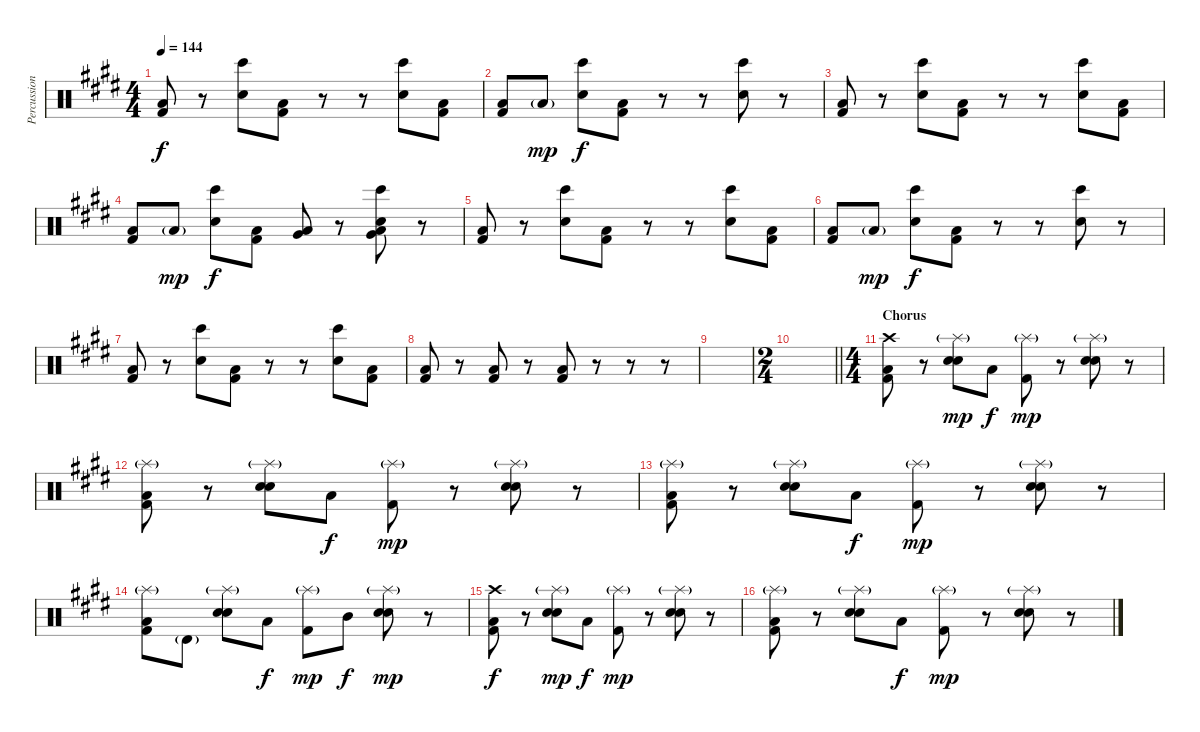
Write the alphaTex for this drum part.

\track ("Percussion" "Percussion") {instrument percussion}
\staff {score}
\articulation defaults
\ts (4 4)
\tempo 144
\clef neutral
\ks e
("Low Floor Tom (hit)" "Kick (hit) 2").8{dy f} r.8 ("Bongo High (hit)" "Hand Clap (hit)").8 ("Low Floor Tom (hit)" "Kick (hit) 2").8 r.8 r.8 ("Bongo High (hit)" "Hand Clap (hit)").8 ("Low Floor Tom (hit)" "Kick (hit) 2").8 |
("Low Floor Tom (hit)" "Kick (hit) 2").8 "Low Tom (hit)"{g}.8{dy mp} ("Bongo High (hit)" "Hand Clap (hit)").8{dy f} ("Low Floor Tom (hit)" "Kick (hit) 2").8 r.8 r.8 ("Bongo High (hit)" "Hand Clap (hit)").8 r.8 |
("Low Floor Tom (hit)" "Kick (hit) 2").8 r.8 ("Bongo High (hit)" "Hand Clap (hit)").8 ("Low Floor Tom (hit)" "Kick (hit) 2").8 r.8 r.8 ("Bongo High (hit)" "Hand Clap (hit)").8 ("Low Floor Tom (hit)" "Kick (hit) 2").8 |
("Low Floor Tom (hit)" "Kick (hit) 2").8 "Low Tom (hit)"{g}.8{dy mp} ("Bongo High (hit)" "Hand Clap (hit)").8{dy f} ("Low Floor Tom (hit)" "Kick (hit) 2").8 ("Low Tom (hit)" "Very Low Tom (hit)").8 r.8 ("Bongo High (hit)" "Hand Clap (hit)" "Low Tom (hit)" "Very Low Tom (hit)").8 r.8 |
("Low Floor Tom (hit)" "Kick (hit) 2").8 r.8 ("Bongo High (hit)" "Hand Clap (hit)").8 ("Low Floor Tom (hit)" "Kick (hit) 2").8 r.8 r.8 ("Bongo High (hit)" "Hand Clap (hit)").8 ("Low Floor Tom (hit)" "Kick (hit) 2").8 |
("Low Floor Tom (hit)" "Kick (hit) 2").8 "Low Tom (hit)"{g}.8{dy mp} ("Bongo High (hit)" "Hand Clap (hit)").8{dy f} ("Low Floor Tom (hit)" "Kick (hit) 2").8 r.8 r.8 ("Bongo High (hit)" "Hand Clap (hit)").8 r.8 |
("Low Floor Tom (hit)" "Kick (hit) 2").8 r.8 ("Bongo High (hit)" "Hand Clap (hit)").8 ("Low Floor Tom (hit)" "Kick (hit) 2").8 r.8 r.8 ("Bongo High (hit)" "Hand Clap (hit)").8 ("Low Floor Tom (hit)" "Kick (hit) 2").8 |
("Low Floor Tom (hit)" "Kick (hit) 2").8 r.8 ("Low Floor Tom (hit)" "Kick (hit) 2").8 r.8 ("Low Floor Tom (hit)" "Kick (hit) 2").8 r.8 r.8 r.8 |
|
\ts (2 4)
\barLineRight lightlight
|
\ts (4 4)
\section ("" "Chorus")
("Crash high (hit)" "Low Floor Tom (hit)" "Kick (hit) 2").8 r.8 ("Splash (hit)"{g} "Hand Clap (hit)" "Electric Snare (hit)").8{dy mp} "Low Floor Tom (hit)".8{dy f} ("Splash (hit)"{g} "Kick (hit) 2").8{dy mp} r.8 ("Splash (hit)"{g} "Hand Clap (hit)" "Electric Snare (hit)").8 r.8 |
("Splash (hit)"{g} "Low Floor Tom (hit)" "Kick (hit) 2").8 r.8 ("Splash (hit)"{g} "Hand Clap (hit)" "Electric Snare (hit)").8 "Low Floor Tom (hit)".8{dy f} ("Splash (hit)"{g} "Kick (hit) 2").8{dy mp} r.8 ("Splash (hit)"{g} "Hand Clap (hit)" "Electric Snare (hit)").8 r.8 |
("Splash (hit)"{g} "Low Floor Tom (hit)" "Kick (hit) 2").8 r.8 ("Splash (hit)"{g} "Hand Clap (hit)" "Electric Snare (hit)").8 "Low Floor Tom (hit)".8{dy f} ("Splash (hit)"{g} "Kick (hit) 2").8{dy mp} r.8 ("Splash (hit)"{g} "Hand Clap (hit)" "Electric Snare (hit)").8 r.8 |
("Splash (hit)"{g} "Low Floor Tom (hit)" "Kick (hit) 2").8 "Timbale high (hit)"{g}.8 ("Splash (hit)"{g} "Hand Clap (hit)" "Electric Snare (hit)").8 "Low Floor Tom (hit)".8{dy f} ("Splash (hit)"{g} "Kick (hit) 2").8{dy mp} "Mid Tom (hit)".8{dy f} ("Splash (hit)"{g} "Hand Clap (hit)" "Electric Snare (hit)").8{dy mp} r.8 |
("Crash high (hit)" "Low Floor Tom (hit)" "Kick (hit) 2").8{dy f} r.8 ("Splash (hit)"{g} "Hand Clap (hit)" "Electric Snare (hit)").8{dy mp} "Low Floor Tom (hit)".8{dy f} ("Splash (hit)"{g} "Kick (hit) 2").8{dy mp} r.8 ("Splash (hit)"{g} "Hand Clap (hit)" "Electric Snare (hit)").8 r.8 |
("Splash (hit)"{g} "Low Floor Tom (hit)" "Kick (hit) 2").8 r.8 ("Splash (hit)"{g} "Hand Clap (hit)" "Electric Snare (hit)").8 "Low Floor Tom (hit)".8{dy f} ("Splash (hit)"{g} "Kick (hit) 2").8{dy mp} r.8 ("Splash (hit)"{g} "Hand Clap (hit)" "Electric Snare (hit)").8 r.8
